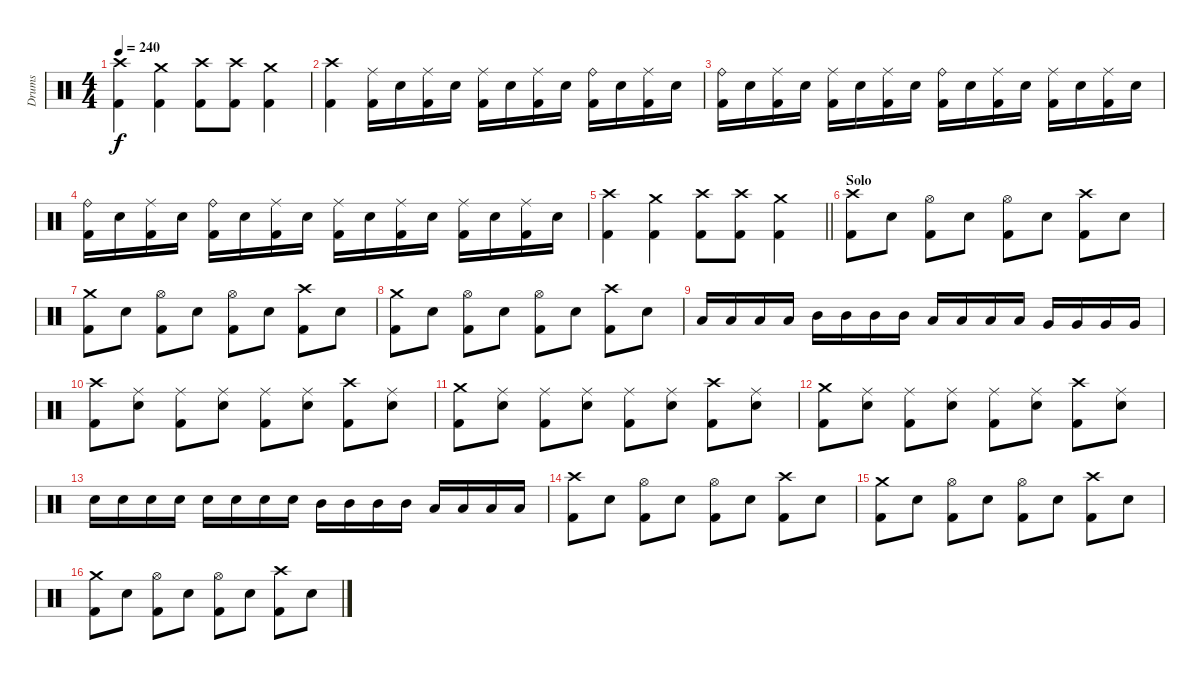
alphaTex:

\track ("Drums" "Drums") {instrument percussion}
\staff {score}
\articulation defaults
\ts (4 4)
\tempo 240
\clef neutral
\ks c
("Crash high (hit)" "Kick (hit) 2").4{dy f} ("Crash medium (hit)" "Kick (hit) 2").4 ("Crash high (hit)" "Kick (hit) 2").8 ("Crash high (hit)" "Kick (hit) 2").8 ("Crash medium (hit)" "Kick (hit) 2").4 |
("Crash high (hit)" "Kick (hit) 2").4 ("Ride (middle)" "Kick (hit) 2").16 "Electric Snare (hit)".16 ("Ride (middle)" "Kick (hit) 2").16 "Electric Snare (hit)".16 ("Ride (middle)" "Kick (hit) 2").16 "Electric Snare (hit)".16 ("Ride (middle)" "Kick (hit) 2").16 "Electric Snare (hit)".16 ("Ride (bell)" "Kick (hit) 2").16 "Electric Snare (hit)".16 ("Ride (middle)" "Kick (hit) 2").16 "Electric Snare (hit)".16 |
("Ride (bell)" "Kick (hit) 2").16 "Electric Snare (hit)".16 ("Ride (middle)" "Kick (hit) 2").16 "Electric Snare (hit)".16 ("Ride (middle)" "Kick (hit) 2").16 "Electric Snare (hit)".16 ("Ride (middle)" "Kick (hit) 2").16 "Electric Snare (hit)".16 ("Ride (bell)" "Kick (hit) 2").16 "Electric Snare (hit)".16 ("Ride (middle)" "Kick (hit) 2").16 "Electric Snare (hit)".16 ("Ride (middle)" "Kick (hit) 2").16 "Electric Snare (hit)".16 ("Ride (middle)" "Kick (hit) 2").16 "Electric Snare (hit)".16 |
("Ride (bell)" "Kick (hit) 2").16 "Electric Snare (hit)".16 ("Ride (middle)" "Kick (hit) 2").16 "Electric Snare (hit)".16 ("Ride (bell)" "Kick (hit) 2").16 "Electric Snare (hit)".16 ("Ride (middle)" "Kick (hit) 2").16 "Electric Snare (hit)".16 ("Ride (middle)" "Kick (hit) 2").16 "Electric Snare (hit)".16 ("Ride (middle)" "Kick (hit) 2").16 "Electric Snare (hit)".16 ("Ride (middle)" "Kick (hit) 2").16 "Electric Snare (hit)".16 ("Ride (middle)" "Kick (hit) 2").16 "Electric Snare (hit)".16 |
\barLineRight lightlight
("Crash high (hit)" "Kick (hit) 2").4 ("Crash medium (hit)" "Kick (hit) 2").4 ("Crash high (hit)" "Kick (hit) 2").8 ("Crash high (hit)" "Kick (hit) 2").8 ("Crash medium (hit)" "Kick (hit) 2").4 |
\section ("" "Solo")
("Crash high (hit)" "Kick (hit) 2").8 "Electric Snare (hit)".8 ("Hi-Hat (open)" "Kick (hit) 2").8 "Electric Snare (hit)".8 ("Hi-Hat (open)" "Kick (hit) 2").8 "Electric Snare (hit)".8 ("Crash high (hit)" "Kick (hit) 2").8 "Electric Snare (hit)".8 |
("Crash medium (hit)" "Kick (hit) 2").8 "Electric Snare (hit)".8 ("Hi-Hat (open)" "Kick (hit) 2").8 "Electric Snare (hit)".8 ("Hi-Hat (open)" "Kick (hit) 2").8 "Electric Snare (hit)".8 ("Crash high (hit)" "Kick (hit) 2").8 "Electric Snare (hit)".8 |
("Crash medium (hit)" "Kick (hit) 2").8 "Electric Snare (hit)".8 ("Hi-Hat (open)" "Kick (hit) 2").8 "Electric Snare (hit)".8 ("Hi-Hat (open)" "Kick (hit) 2").8 "Electric Snare (hit)".8 ("Crash high (hit)" "Kick (hit) 2").8 "Electric Snare (hit)".8 |
"Low Tom (hit)".16 "Low Tom (hit)".16 "Low Tom (hit)".16 "Low Tom (hit)".16 "Mid Tom (hit)".16 "Mid Tom (hit)".16 "Mid Tom (hit)".16 "Mid Tom (hit)".16 "Low Tom (hit)".16 "Low Tom (hit)".16 "Low Tom (hit)".16 "Low Tom (hit)".16 "Very Low Tom (hit)".16 "Very Low Tom (hit)".16 "Very Low Tom (hit)".16 "Very Low Tom (hit)".16 |
("Crash high (hit)" "Kick (hit) 2").8 ("Ride (middle)" "Electric Snare (hit)").8 ("Ride (middle)" "Kick (hit) 2").8 ("Ride (middle)" "Electric Snare (hit)").8 ("Ride (middle)" "Kick (hit) 2").8 ("Ride (middle)" "Electric Snare (hit)").8 ("Crash high (hit)" "Kick (hit) 2").8 ("Ride (middle)" "Electric Snare (hit)").8 |
("Crash medium (hit)" "Kick (hit) 2").8 ("Ride (middle)" "Electric Snare (hit)").8 ("Ride (middle)" "Kick (hit) 2").8 ("Ride (middle)" "Electric Snare (hit)").8 ("Ride (middle)" "Kick (hit) 2").8 ("Ride (middle)" "Electric Snare (hit)").8 ("Crash high (hit)" "Kick (hit) 2").8 ("Ride (middle)" "Electric Snare (hit)").8 |
("Crash medium (hit)" "Kick (hit) 2").8 ("Ride (middle)" "Electric Snare (hit)").8 ("Ride (middle)" "Kick (hit) 2").8 ("Ride (middle)" "Electric Snare (hit)").8 ("Ride (middle)" "Kick (hit) 2").8 ("Ride (middle)" "Electric Snare (hit)").8 ("Crash high (hit)" "Kick (hit) 2").8 ("Ride (middle)" "Electric Snare (hit)").8 |
"Electric Snare (hit)".16 "Electric Snare (hit)".16 "Electric Snare (hit)".16 "Electric Snare (hit)".16 "Electric Snare (hit)".16 "Electric Snare (hit)".16 "Electric Snare (hit)".16 "Electric Snare (hit)".16 "Mid Tom (hit)".16 "Mid Tom (hit)".16 "Mid Tom (hit)".16 "Mid Tom (hit)".16 "Low Tom (hit)".16 "Low Tom (hit)".16 "Low Tom (hit)".16 "Low Tom (hit)".16 |
("Crash high (hit)" "Kick (hit) 2").8 "Electric Snare (hit)".8 ("Hi-Hat (open)" "Kick (hit) 2").8 "Electric Snare (hit)".8 ("Hi-Hat (open)" "Kick (hit) 2").8 "Electric Snare (hit)".8 ("Crash high (hit)" "Kick (hit) 2").8 "Electric Snare (hit)".8 |
("Crash medium (hit)" "Kick (hit) 2").8 "Electric Snare (hit)".8 ("Hi-Hat (open)" "Kick (hit) 2").8 "Electric Snare (hit)".8 ("Hi-Hat (open)" "Kick (hit) 2").8 "Electric Snare (hit)".8 ("Crash high (hit)" "Kick (hit) 2").8 "Electric Snare (hit)".8 |
("Crash medium (hit)" "Kick (hit) 2").8 "Electric Snare (hit)".8 ("Hi-Hat (open)" "Kick (hit) 2").8 "Electric Snare (hit)".8 ("Hi-Hat (open)" "Kick (hit) 2").8 "Electric Snare (hit)".8 ("Crash high (hit)" "Kick (hit) 2").8 "Electric Snare (hit)".8
